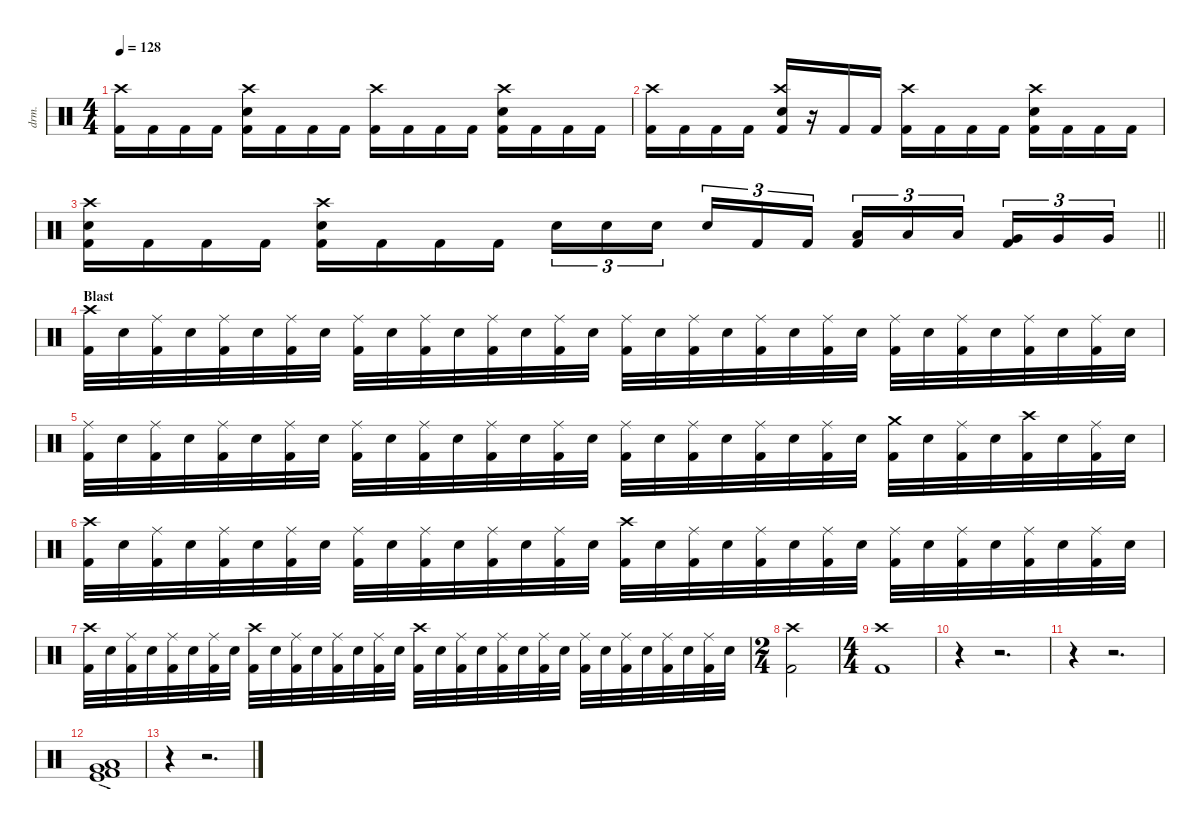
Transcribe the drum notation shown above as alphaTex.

\defaultSystemsLayout 4
\hideDynamics
\bracketExtendMode nobrackets
\otherSystemsTrackNameOrientation horizontal
\track ("Drums" "drm.") {instrument percussion}
\staff {score}
\articulation defaults
\ts (4 4)
\tempo 128
\clef neutral
\ks c
("Crash high (hit)" "Kick (hit) 2").16{dy f beam Down} "Kick (hit) 2".16{beam Down} "Kick (hit) 2".16{beam Down} "Kick (hit) 2".16{beam Down} ("Crash high (hit)" "Snare (hit) 2" "Kick (hit) 2").16{beam Down} "Kick (hit) 2".16{beam Down} "Kick (hit) 2".16{beam Down} "Kick (hit) 2".16{beam Down} ("Crash high (hit)" "Kick (hit) 2").16{beam Down} "Kick (hit) 2".16{beam Down} "Kick (hit) 2".16{beam Down} "Kick (hit) 2".16{beam Down} ("Crash high (hit)" "Snare (hit) 2" "Kick (hit) 2").16{beam Down} "Kick (hit) 2".16{beam Down} "Kick (hit) 2".16{beam Down} "Kick (hit) 2".16{beam Down} |
("Crash high (hit)" "Kick (hit) 2").16{beam Down} "Kick (hit) 2".16{beam Down} "Kick (hit) 2".16{beam Down} "Kick (hit) 2".16{beam Down} ("Crash high (hit)" "Snare (hit) 2" "Kick (hit) 2").16{beam Up} r.16{beam Up} "Kick (hit) 2".16{beam Up} "Kick (hit) 2".16{beam Up} ("Crash high (hit)" "Kick (hit) 2").16{beam Down} "Kick (hit) 2".16{beam Down} "Kick (hit) 2".16{beam Down} "Kick (hit) 2".16{beam Down} ("Crash high (hit)" "Snare (hit) 2" "Kick (hit) 2").16{beam Down} "Kick (hit) 2".16{beam Down} "Kick (hit) 2".16{beam Down} "Kick (hit) 2".16{beam Down} |
\barLineRight lightlight
("Crash high (hit)" "Snare (hit) 2" "Kick (hit) 2").16{beam Down} "Kick (hit) 2".16{beam Down} "Kick (hit) 2".16{beam Down} "Kick (hit) 2".16{beam Down} ("Crash high (hit)" "Snare (hit) 2" "Kick (hit) 2").16{beam Down} "Kick (hit) 2".16{beam Down} "Kick (hit) 2".16{beam Down} "Kick (hit) 2".16{beam Down} "Snare (hit) 2".16{tu (3 2) beam Down} "Snare (hit) 2".16{tu (3 2) beam Down} "Snare (hit) 2".16{tu (3 2) beam Down} "Snare (hit) 2".16{tu (3 2) beam Up} "Kick (hit) 2".16{tu (3 2) beam Up} "Kick (hit) 2".16{tu (3 2) beam Up} ("Low Tom (hit)" "Kick (hit) 2").16{tu (3 2) beam Up} "Low Tom (hit)".16{tu (3 2) beam Up} "Low Tom (hit)".16{tu (3 2) beam Up} ("Very Low Tom (hit)" "Kick (hit) 2").16{tu (3 2) beam Up} "Very Low Tom (hit)".16{tu (3 2) beam Up} "Very Low Tom (hit)".16{tu (3 2) beam Up} |
\section ("" "Blast")
("Crash high (hit)" "Kick (hit) 2").32{beam Down} "Snare (hit) 2".32{beam Down} ("Ride (middle)" "Kick (hit) 2").32{beam Down} "Snare (hit) 2".32{beam Down} ("Ride (middle)" "Kick (hit) 2").32{beam Down} "Snare (hit) 2".32{beam Down} ("Ride (middle)" "Kick (hit) 2").32{beam Down} "Snare (hit) 2".32{beam Down} ("Ride (middle)" "Kick (hit) 2").32{beam Down} "Snare (hit) 2".32{beam Down} ("Ride (middle)" "Kick (hit) 2").32{beam Down} "Snare (hit) 2".32{beam Down} ("Ride (middle)" "Kick (hit) 2").32{beam Down} "Snare (hit) 2".32{beam Down} ("Ride (middle)" "Kick (hit) 2").32{beam Down} "Snare (hit) 2".32{beam Down} ("Ride (middle)" "Kick (hit) 2").32{beam Down} "Snare (hit) 2".32{beam Down} ("Ride (middle)" "Kick (hit) 2").32{beam Down} "Snare (hit) 2".32{beam Down} ("Ride (middle)" "Kick (hit) 2").32{beam Down} "Snare (hit) 2".32{beam Down} ("Ride (middle)" "Kick (hit) 2").32{beam Down} "Snare (hit) 2".32{beam Down} ("Ride (middle)" "Kick (hit) 2").32{beam Down} "Snare (hit) 2".32{beam Down} ("Ride (middle)" "Kick (hit) 2").32{beam Down} "Snare (hit) 2".32{beam Down} ("Ride (middle)" "Kick (hit) 2").32{beam Down} "Snare (hit) 2".32{beam Down} ("Ride (middle)" "Kick (hit) 2").32{beam Down} "Snare (hit) 2".32{beam Down} |
("Ride (middle)" "Kick (hit) 2").32{beam Down} "Snare (hit) 2".32{beam Down} ("Ride (middle)" "Kick (hit) 2").32{beam Down} "Snare (hit) 2".32{beam Down} ("Ride (middle)" "Kick (hit) 2").32{beam Down} "Snare (hit) 2".32{beam Down} ("Ride (middle)" "Kick (hit) 2").32{beam Down} "Snare (hit) 2".32{beam Down} ("Ride (middle)" "Kick (hit) 2").32{beam Down} "Snare (hit) 2".32{beam Down} ("Ride (middle)" "Kick (hit) 2").32{beam Down} "Snare (hit) 2".32{beam Down} ("Ride (middle)" "Kick (hit) 2").32{beam Down} "Snare (hit) 2".32{beam Down} ("Ride (middle)" "Kick (hit) 2").32{beam Down} "Snare (hit) 2".32{beam Down} ("Ride (middle)" "Kick (hit) 2").32{beam Down} "Snare (hit) 2".32{beam Down} ("Ride (middle)" "Kick (hit) 2").32{beam Down} "Snare (hit) 2".32{beam Down} ("Ride (middle)" "Kick (hit) 2").32{beam Down} "Snare (hit) 2".32{beam Down} ("Ride (middle)" "Kick (hit) 2").32{beam Down} "Snare (hit) 2".32{beam Down} ("Crash medium (hit)" "Kick (hit) 2").32{beam Down} "Snare (hit) 2".32{beam Down} ("Ride (middle)" "Kick (hit) 2").32{beam Down} "Snare (hit) 2".32{beam Down} ("Crash high (hit)" "Kick (hit) 2").32{beam Down} "Snare (hit) 2".32{beam Down} ("Ride (middle)" "Kick (hit) 2").32{beam Down} "Snare (hit) 2".32{beam Down} |
("Crash high (hit)" "Kick (hit) 2").32{beam Down} "Snare (hit) 2".32{beam Down} ("Ride (middle)" "Kick (hit) 2").32{beam Down} "Snare (hit) 2".32{beam Down} ("Ride (middle)" "Kick (hit) 2").32{beam Down} "Snare (hit) 2".32{beam Down} ("Ride (middle)" "Kick (hit) 2").32{beam Down} "Snare (hit) 2".32{beam Down} ("Ride (middle)" "Kick (hit) 2").32{beam Down} "Snare (hit) 2".32{beam Down} ("Ride (middle)" "Kick (hit) 2").32{beam Down} "Snare (hit) 2".32{beam Down} ("Ride (middle)" "Kick (hit) 2").32{beam Down} "Snare (hit) 2".32{beam Down} ("Ride (middle)" "Kick (hit) 2").32{beam Down} "Snare (hit) 2".32{beam Down} ("Crash high (hit)" "Kick (hit) 2").32{beam Down} "Snare (hit) 2".32{beam Down} ("Ride (middle)" "Kick (hit) 2").32{beam Down} "Snare (hit) 2".32{beam Down} ("Ride (middle)" "Kick (hit) 2").32{beam Down} "Snare (hit) 2".32{beam Down} ("Ride (middle)" "Kick (hit) 2").32{beam Down} "Snare (hit) 2".32{beam Down} ("Ride (middle)" "Kick (hit) 2").32{beam Down} "Snare (hit) 2".32{beam Down} ("Ride (middle)" "Kick (hit) 2").32{beam Down} "Snare (hit) 2".32{beam Down} ("Ride (middle)" "Kick (hit) 2").32{beam Down} "Snare (hit) 2".32{beam Down} ("Ride (middle)" "Kick (hit) 2").32{beam Down} "Snare (hit) 2".32{beam Down} |
("Crash high (hit)" "Kick (hit) 2").32{beam Down} "Snare (hit) 2".32{beam Down} ("Ride (middle)" "Kick (hit) 2").32{beam Down} "Snare (hit) 2".32{beam Down} ("Ride (middle)" "Kick (hit) 2").32{beam Down} "Snare (hit) 2".32{beam Down} ("Ride (middle)" "Kick (hit) 2").32{beam Down} "Snare (hit) 2".32{beam Down} ("Crash high (hit)" "Kick (hit) 2").32{beam Down} "Snare (hit) 2".32{beam Down} ("Ride (middle)" "Kick (hit) 2").32{beam Down} "Snare (hit) 2".32{beam Down} ("Ride (middle)" "Kick (hit) 2").32{beam Down} "Snare (hit) 2".32{beam Down} ("Ride (middle)" "Kick (hit) 2").32{beam Down} "Snare (hit) 2".32{beam Down} ("Crash high (hit)" "Kick (hit) 2").32{beam Down} "Snare (hit) 2".32{beam Down} ("Ride (middle)" "Kick (hit) 2").32{beam Down} "Snare (hit) 2".32{beam Down} ("Ride (middle)" "Kick (hit) 2").32{beam Down} "Snare (hit) 2".32{beam Down} ("Ride (middle)" "Kick (hit) 2").32{beam Down} "Snare (hit) 2".32{beam Down} ("Ride (middle)" "Kick (hit) 2").32{beam Down} "Snare (hit) 2".32{beam Down} ("Ride (middle)" "Kick (hit) 2").32{beam Down} "Snare (hit) 2".32{beam Down} ("Ride (middle)" "Kick (hit) 2").32{beam Down} "Snare (hit) 2".32{beam Down} ("Ride (middle)" "Kick (hit) 2").32{beam Down} "Snare (hit) 2".32{beam Down} |
\ts (2 4)
("Crash high (hit)" "Kick (hit) 2").2{beam Down} |
\ts (4 4)
("Crash high (hit)" "Kick (hit) 2").1{beam Down} |
r.4{beam Down} r.2{d beam Down} |
r.4{beam Down} r.2{d beam Down} |
("Very Low Tom (hit)"{ac} "Low Floor Tom (hit)"{ac} "Kick (hit)" "Kick (hit) 2").1{beam Up} |
r.4{beam Down} r.2{d beam Down}
